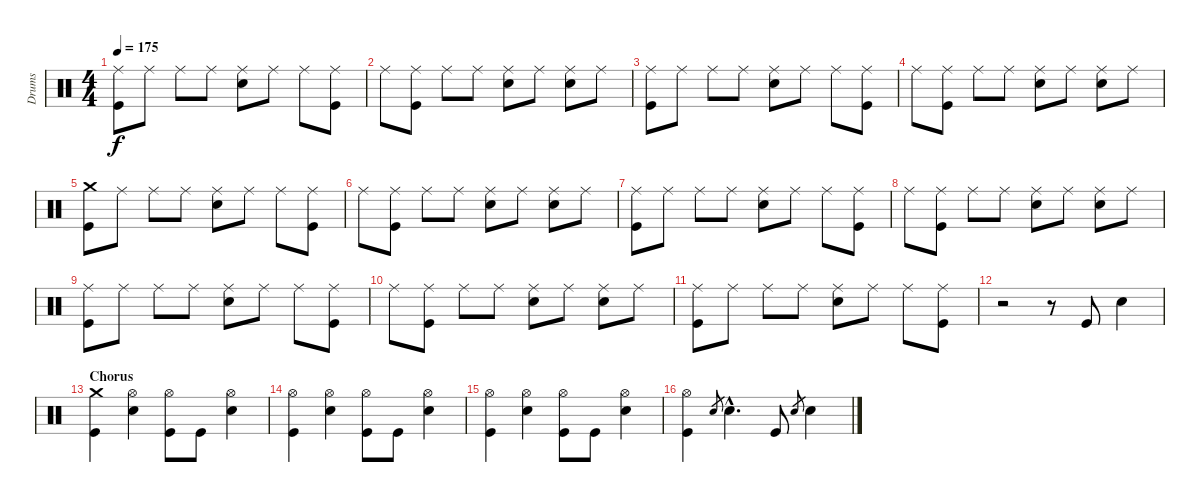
\track ("Drums" "Drums") {instrument percussion}
\staff {score}
\articulation defaults
\ts (4 4)
\tempo 175
\clef neutral
\ks c
("Ride (middle)" "Kick (hit)").8{dy f} "Ride (middle)".8 "Ride (middle)".8 "Ride (middle)".8 ("Ride (middle)" "Electric Snare (hit)").8 "Ride (middle)".8 "Ride (middle)".8 ("Ride (middle)" "Kick (hit)").8 |
"Ride (middle)".8 ("Ride (middle)" "Kick (hit)").8 "Ride (middle)".8 "Ride (middle)".8 ("Ride (middle)" "Electric Snare (hit)").8 "Ride (middle)".8 ("Ride (middle)" "Electric Snare (hit)").8 "Ride (middle)".8 |
("Ride (middle)" "Kick (hit)").8 "Ride (middle)".8 "Ride (middle)".8 "Ride (middle)".8 ("Ride (middle)" "Electric Snare (hit)").8 "Ride (middle)".8 "Ride (middle)".8 ("Ride (middle)" "Kick (hit)").8 |
"Ride (middle)".8 ("Ride (middle)" "Kick (hit)").8 "Ride (middle)".8 "Ride (middle)".8 ("Ride (middle)" "Electric Snare (hit)").8 "Ride (middle)".8 ("Ride (middle)" "Electric Snare (hit)").8 "Ride (middle)".8 |
("Crash medium (hit)" "Kick (hit)").8 "Ride (middle)".8 "Ride (middle)".8 "Ride (middle)".8 ("Ride (middle)" "Electric Snare (hit)").8 "Ride (middle)".8 "Ride (middle)".8 ("Ride (middle)" "Kick (hit)").8 |
"Ride (middle)".8 ("Ride (middle)" "Kick (hit)").8 "Ride (middle)".8 "Ride (middle)".8 ("Ride (middle)" "Electric Snare (hit)").8 "Ride (middle)".8 ("Ride (middle)" "Electric Snare (hit)").8 "Ride (middle)".8 |
("Ride (middle)" "Kick (hit)").8 "Ride (middle)".8 "Ride (middle)".8 "Ride (middle)".8 ("Ride (middle)" "Electric Snare (hit)").8 "Ride (middle)".8 "Ride (middle)".8 ("Ride (middle)" "Kick (hit)").8 |
"Ride (middle)".8 ("Ride (middle)" "Kick (hit)").8 "Ride (middle)".8 "Ride (middle)".8 ("Ride (middle)" "Electric Snare (hit)").8 "Ride (middle)".8 ("Ride (middle)" "Electric Snare (hit)").8 "Ride (middle)".8 |
("Ride (middle)" "Kick (hit)").8 "Ride (middle)".8 "Ride (middle)".8 "Ride (middle)".8 ("Ride (middle)" "Electric Snare (hit)").8 "Ride (middle)".8 "Ride (middle)".8 ("Ride (middle)" "Kick (hit)").8 |
"Ride (middle)".8 ("Ride (middle)" "Kick (hit)").8 "Ride (middle)".8 "Ride (middle)".8 ("Ride (middle)" "Electric Snare (hit)").8 "Ride (middle)".8 ("Ride (middle)" "Electric Snare (hit)").8 "Ride (middle)".8 |
("Ride (middle)" "Kick (hit)").8 "Ride (middle)".8 "Ride (middle)".8 "Ride (middle)".8 ("Ride (middle)" "Electric Snare (hit)").8 "Ride (middle)".8 "Ride (middle)".8 ("Ride (middle)" "Kick (hit)").8 |
r.2 r.8 "Kick (hit)".8 "Electric Snare (hit)".4 |
\section ("" "Chorus")
("Crash medium (hit)" "Kick (hit)").4 ("Hi-Hat (open)" "Electric Snare (hit)").4 ("Hi-Hat (open)" "Kick (hit)").8 "Kick (hit)".8 ("Hi-Hat (open)" "Electric Snare (hit)").4 |
("Hi-Hat (open)" "Kick (hit)").4 ("Hi-Hat (open)" "Electric Snare (hit)").4 ("Hi-Hat (open)" "Kick (hit)").8 "Kick (hit)".8 ("Hi-Hat (open)" "Electric Snare (hit)").4 |
("Hi-Hat (open)" "Kick (hit)").4 ("Hi-Hat (open)" "Electric Snare (hit)").4 ("Hi-Hat (open)" "Kick (hit)").8 "Kick (hit)".8 ("Hi-Hat (open)" "Electric Snare (hit)").4 |
("Hi-Hat (open)" "Kick (hit)").4 "Electric Snare (hit)".8{gr} "Electric Snare (hit)"{hac}.4{d} "Kick (hit)".8 "Electric Snare (hit)".8{gr} "Electric Snare (hit)".4
